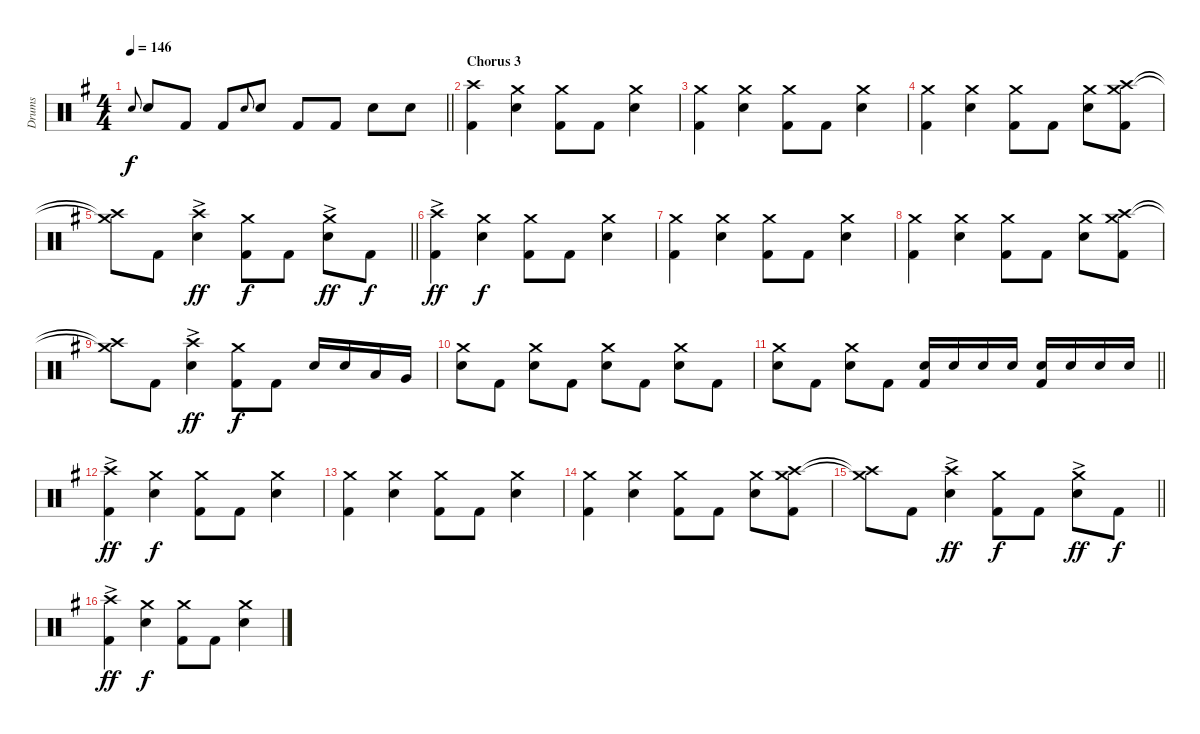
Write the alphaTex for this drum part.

\track ("Drums" "Drums") {instrument percussion}
\staff {score}
\articulation defaults
\ts (4 4)
\tempo 146
\clef neutral
\barLineRight lightlight
\ks g "Electric Snare (hit)".8{gr onbeat dy f} "Electric Snare (hit)".8 "Kick (hit) 2".8 "Kick (hit) 2".8 "Electric Snare (hit)".8{gr onbeat} "Electric Snare (hit)".8 "Kick (hit) 2".8 "Kick (hit) 2".8 "Electric Snare (hit)".8 "Electric Snare (hit)".8
|
\section ("" "Chorus 3")
("Crash high (hit)" "Kick (hit) 2").4 ("Crash medium (hit)" "Electric Snare (hit)").4 ("Crash medium (hit)" "Kick (hit) 2").8 "Kick (hit) 2".8 ("Crash medium (hit)" "Electric Snare (hit)").4 |
("Crash medium (hit)" "Kick (hit) 2").4 ("Crash medium (hit)" "Electric Snare (hit)").4 ("Crash medium (hit)" "Kick (hit) 2").8 "Kick (hit) 2".8 ("Crash medium (hit)" "Electric Snare (hit)").4 |
("Crash medium (hit)" "Kick (hit) 2").4 ("Crash medium (hit)" "Electric Snare (hit)").4 ("Crash medium (hit)" "Kick (hit) 2").8 "Kick (hit) 2".8 ("Crash medium (hit)" "Electric Snare (hit)").8 ("Crash high (hit)" "Crash medium (hit)" "Kick (hit) 2").8 |
\barLineRight lightlight
("Crash high (hit)"{t} "Crash medium (hit)"{t}).8 "Kick (hit) 2".8 ("Crash high (hit)"{ac} "Electric Snare (hit)").4{dy ff} ("Crash medium (hit)" "Kick (hit) 2").8{dy f} "Kick (hit) 2".8 ("Crash medium (hit)"{ac} "Electric Snare (hit)").8{dy ff} "Kick (hit) 2".8{dy f} |
("Crash high (hit)"{ac} "Kick (hit) 2").4{dy ff} ("Crash medium (hit)" "Electric Snare (hit)").4{dy f} ("Crash medium (hit)" "Kick (hit) 2").8 "Kick (hit) 2".8 ("Crash medium (hit)" "Electric Snare (hit)").4 |
("Crash medium (hit)" "Kick (hit) 2").4 ("Crash medium (hit)" "Electric Snare (hit)").4 ("Crash medium (hit)" "Kick (hit) 2").8 "Kick (hit) 2".8 ("Crash medium (hit)" "Electric Snare (hit)").4 |
("Crash medium (hit)" "Kick (hit) 2").4 ("Crash medium (hit)" "Electric Snare (hit)").4 ("Crash medium (hit)" "Kick (hit) 2").8 "Kick (hit) 2".8 ("Crash medium (hit)" "Electric Snare (hit)").8 ("Crash high (hit)" "Crash medium (hit)" "Kick (hit) 2").8 |
("Crash high (hit)"{t} "Crash medium (hit)"{t}).8 "Kick (hit) 2".8 ("Crash high (hit)"{ac} "Electric Snare (hit)").4{dy ff} ("Crash medium (hit)" "Kick (hit) 2").8{dy f} "Kick (hit) 2".8 "Electric Snare (hit)".16 "Electric Snare (hit)".16 "Low Tom (hit)".16 "Very Low Tom (hit)".16 |
("Crash medium (hit)" "Electric Snare (hit)").8 "Kick (hit) 2".8 ("Crash medium (hit)" "Electric Snare (hit)").8 "Kick (hit) 2".8 ("Crash medium (hit)" "Electric Snare (hit)").8 "Kick (hit) 2".8 ("Crash medium (hit)" "Electric Snare (hit)").8 "Kick (hit) 2".8 |
\barLineRight lightlight
("Crash medium (hit)" "Electric Snare (hit)").8 "Kick (hit) 2".8 ("Crash medium (hit)" "Electric Snare (hit)").8 "Kick (hit) 2".8 ("Electric Snare (hit)" "Kick (hit) 2").16 "Electric Snare (hit)".16 "Electric Snare (hit)".16 "Electric Snare (hit)".16 ("Electric Snare (hit)" "Kick (hit) 2").16 "Electric Snare (hit)".16 "Electric Snare (hit)".16 "Electric Snare (hit)".16 |
("Crash high (hit)"{ac} "Kick (hit) 2").4{dy ff} ("Crash medium (hit)" "Electric Snare (hit)").4{dy f} ("Crash medium (hit)" "Kick (hit) 2").8 "Kick (hit) 2".8 ("Crash medium (hit)" "Electric Snare (hit)").4 |
("Crash medium (hit)" "Kick (hit) 2").4 ("Crash medium (hit)" "Electric Snare (hit)").4 ("Crash medium (hit)" "Kick (hit) 2").8 "Kick (hit) 2".8 ("Crash medium (hit)" "Electric Snare (hit)").4 |
("Crash medium (hit)" "Kick (hit) 2").4 ("Crash medium (hit)" "Electric Snare (hit)").4 ("Crash medium (hit)" "Kick (hit) 2").8 "Kick (hit) 2".8 ("Crash medium (hit)" "Electric Snare (hit)").8 ("Crash high (hit)" "Crash medium (hit)" "Kick (hit) 2").8 |
\barLineRight lightlight
("Crash high (hit)"{t} "Crash medium (hit)"{t}).8 "Kick (hit) 2".8 ("Crash high (hit)"{ac} "Electric Snare (hit)").4{dy ff} ("Crash medium (hit)" "Kick (hit) 2").8{dy f} "Kick (hit) 2".8 ("Crash medium (hit)"{ac} "Electric Snare (hit)").8{dy ff} "Kick (hit) 2".8{dy f} |
("Crash high (hit)"{ac} "Kick (hit) 2").4{dy ff} ("Crash medium (hit)" "Electric Snare (hit)").4{dy f} ("Crash medium (hit)" "Kick (hit) 2").8 "Kick (hit) 2".8 ("Crash medium (hit)" "Electric Snare (hit)").4
